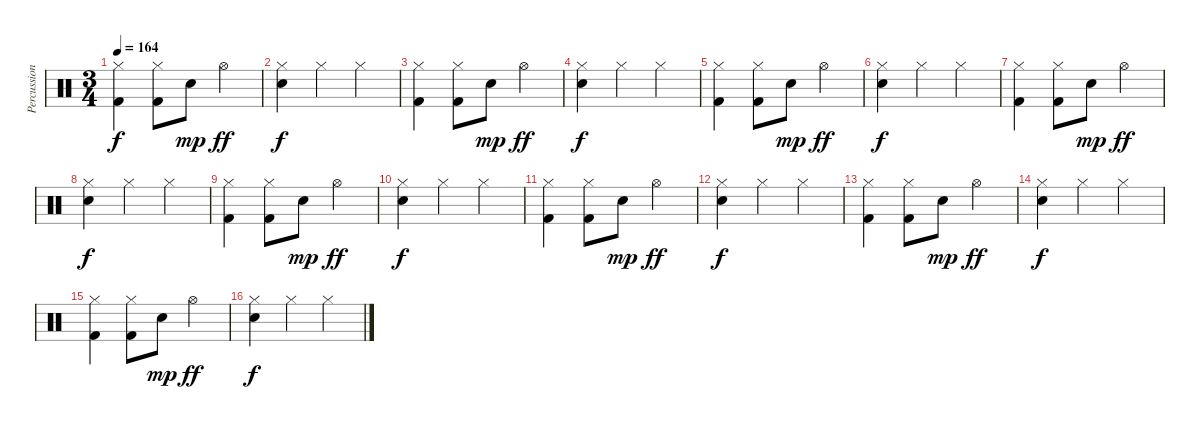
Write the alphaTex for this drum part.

\track ("Percussion" "Percussion") {instrument percussion}
\staff {score}
\articulation defaults
\ts (3 4)
\tempo 164
\clef neutral
\ks c
("Hi-Hat (closed)" "Kick (hit) 2").4{dy f} ("Hi-Hat (closed)" "Kick (hit) 2").8 "Snare (hit) 2".8{dy mp} "Hi-Hat (open)".4{dy ff} |
("Hi-Hat (closed)" "Snare (hit) 2").4{dy f} "Hi-Hat (closed)".4 "Hi-Hat (closed)".4 |
("Hi-Hat (closed)" "Kick (hit) 2").4 ("Hi-Hat (closed)" "Kick (hit) 2").8 "Snare (hit) 2".8{dy mp} "Hi-Hat (open)".4{dy ff} |
("Hi-Hat (closed)" "Snare (hit) 2").4{dy f} "Hi-Hat (closed)".4 "Hi-Hat (closed)".4 |
("Hi-Hat (closed)" "Kick (hit) 2").4 ("Hi-Hat (closed)" "Kick (hit) 2").8 "Snare (hit) 2".8{dy mp} "Hi-Hat (open)".4{dy ff} |
("Hi-Hat (closed)" "Snare (hit) 2").4{dy f} "Hi-Hat (closed)".4 "Hi-Hat (closed)".4 |
("Hi-Hat (closed)" "Kick (hit) 2").4 ("Hi-Hat (closed)" "Kick (hit) 2").8 "Snare (hit) 2".8{dy mp} "Hi-Hat (open)".4{dy ff} |
("Hi-Hat (closed)" "Snare (hit) 2").4{dy f} "Hi-Hat (closed)".4 "Hi-Hat (closed)".4 |
("Hi-Hat (closed)" "Kick (hit) 2").4 ("Hi-Hat (closed)" "Kick (hit) 2").8 "Snare (hit) 2".8{dy mp} "Hi-Hat (open)".4{dy ff} |
("Hi-Hat (closed)" "Snare (hit) 2").4{dy f} "Hi-Hat (closed)".4 "Hi-Hat (closed)".4 |
("Hi-Hat (closed)" "Kick (hit) 2").4 ("Hi-Hat (closed)" "Kick (hit) 2").8 "Snare (hit) 2".8{dy mp} "Hi-Hat (open)".4{dy ff} |
("Hi-Hat (closed)" "Snare (hit) 2").4{dy f} "Hi-Hat (closed)".4 "Hi-Hat (closed)".4 |
("Hi-Hat (closed)" "Kick (hit) 2").4 ("Hi-Hat (closed)" "Kick (hit) 2").8 "Snare (hit) 2".8{dy mp} "Hi-Hat (open)".4{dy ff} |
("Hi-Hat (closed)" "Snare (hit) 2").4{dy f} "Hi-Hat (closed)".4 "Hi-Hat (closed)".4 |
("Hi-Hat (closed)" "Kick (hit) 2").4 ("Hi-Hat (closed)" "Kick (hit) 2").8 "Snare (hit) 2".8{dy mp} "Hi-Hat (open)".4{dy ff} |
("Hi-Hat (closed)" "Snare (hit) 2").4{dy f} "Hi-Hat (closed)".4 "Hi-Hat (closed)".4
